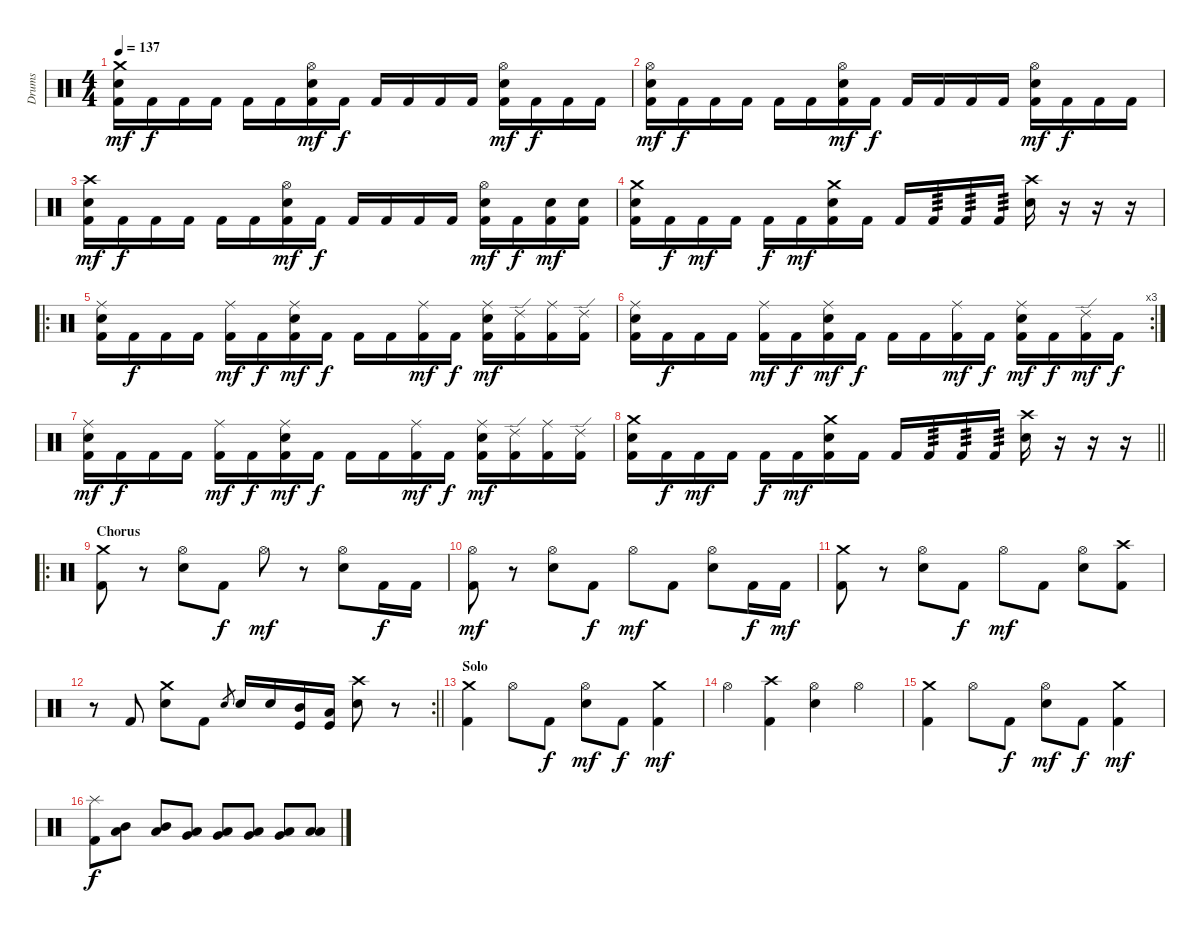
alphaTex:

\track ("Drums" "Drums") {instrument percussion}
\staff {score}
\articulation defaults
\ts (4 4)
\tempo 137
\clef neutral
\ks c
("Crash medium (hit)" "Electric Snare (hit)" "Kick (hit) 2").16{dy mf} "Kick (hit) 2".16{dy f} "Kick (hit) 2".16 "Kick (hit) 2".16 "Kick (hit) 2".16 "Kick (hit) 2".16 ("Hi-Hat (open)" "Electric Snare (hit)" "Kick (hit) 2").16{dy mf} "Kick (hit) 2".16{dy f} "Kick (hit) 2".16 "Kick (hit) 2".16 "Kick (hit) 2".16 "Kick (hit) 2".16 ("Hi-Hat (open)" "Electric Snare (hit)" "Kick (hit) 2").16{dy mf} "Kick (hit) 2".16{dy f} "Kick (hit) 2".16 "Kick (hit) 2".16 |
("Hi-Hat (open)" "Electric Snare (hit)" "Kick (hit) 2").16{dy mf} "Kick (hit) 2".16{dy f} "Kick (hit) 2".16 "Kick (hit) 2".16 "Kick (hit) 2".16 "Kick (hit) 2".16 ("Hi-Hat (open)" "Electric Snare (hit)" "Kick (hit) 2").16{dy mf} "Kick (hit) 2".16{dy f} "Kick (hit) 2".16 "Kick (hit) 2".16 "Kick (hit) 2".16 "Kick (hit) 2".16 ("Hi-Hat (open)" "Electric Snare (hit)" "Kick (hit) 2").16{dy mf} "Kick (hit) 2".16{dy f} "Kick (hit) 2".16 "Kick (hit) 2".16 |
("Crash high (hit)" "Electric Snare (hit)" "Kick (hit) 2").16{dy mf} "Kick (hit) 2".16{dy f} "Kick (hit) 2".16 "Kick (hit) 2".16 "Kick (hit) 2".16 "Kick (hit) 2".16 ("Hi-Hat (open)" "Electric Snare (hit)" "Kick (hit) 2").16{dy mf} "Kick (hit) 2".16{dy f} "Kick (hit) 2".16 "Kick (hit) 2".16 "Kick (hit) 2".16 "Kick (hit) 2".16 ("Hi-Hat (open)" "Electric Snare (hit)" "Kick (hit) 2").16{dy mf} "Kick (hit) 2".16{dy f} ("Electric Snare (hit)" "Kick (hit) 2").16{dy mf} ("Electric Snare (hit)" "Kick (hit) 2").16 |
("Crash medium (hit)" "Electric Snare (hit)" "Kick (hit) 2").16 "Kick (hit) 2".16{dy f} "Kick (hit) 2".16{dy mf} "Kick (hit) 2".16 "Kick (hit) 2".16{dy f} "Kick (hit) 2".16{dy mf} ("Crash medium (hit)" "Electric Snare (hit)" "Kick (hit) 2").16 "Kick (hit) 2".16 "Kick (hit) 2".16 "Kick (hit) 2".16{tp 3} "Kick (hit) 2".16{tp 3} "Kick (hit) 2".16{tp 3} ("Crash high (hit)" "Electric Snare (hit)").16 r.16 r.16 r.16 |
\ro
("Ride (middle)" "Electric Snare (hit)" "Kick (hit) 2").16 "Kick (hit) 2".16{dy f} "Kick (hit) 2".16 "Kick (hit) 2".16 ("Ride (middle)" "Kick (hit) 2").16{dy mf} "Kick (hit) 2".16{dy f} ("Ride (middle)" "Electric Snare (hit)" "Kick (hit) 2").16{dy mf} "Kick (hit) 2".16{dy f} "Kick (hit) 2".16 "Kick (hit) 2".16 ("Ride (middle)" "Kick (hit) 2").16{dy mf} "Kick (hit) 2".16{dy f} ("Ride (middle)" "Electric Snare (hit)" "Kick (hit) 2").16{dy mf} ("Ride (edge) 2" "Kick (hit) 2").16 ("Ride (middle)" "Kick (hit) 2").16 ("Ride (edge) 2" "Kick (hit) 2").16 |
\rc 3
("Ride (middle)" "Electric Snare (hit)" "Kick (hit) 2").16 "Kick (hit) 2".16{dy f} "Kick (hit) 2".16 "Kick (hit) 2".16 ("Ride (middle)" "Kick (hit) 2").16{dy mf} "Kick (hit) 2".16{dy f} ("Ride (middle)" "Electric Snare (hit)" "Kick (hit) 2").16{dy mf} "Kick (hit) 2".16{dy f} "Kick (hit) 2".16 "Kick (hit) 2".16 ("Ride (middle)" "Kick (hit) 2").16{dy mf} "Kick (hit) 2".16{dy f} ("Ride (middle)" "Electric Snare (hit)" "Kick (hit) 2").16{dy mf} "Kick (hit) 2".16{dy f} ("Ride (edge) 2" "Kick (hit) 2").16{dy mf} "Kick (hit) 2".16{dy f} |
("Ride (middle)" "Electric Snare (hit)" "Kick (hit) 2").16{dy mf} "Kick (hit) 2".16{dy f} "Kick (hit) 2".16 "Kick (hit) 2".16 ("Ride (middle)" "Kick (hit) 2").16{dy mf} "Kick (hit) 2".16{dy f} ("Ride (middle)" "Electric Snare (hit)" "Kick (hit) 2").16{dy mf} "Kick (hit) 2".16{dy f} "Kick (hit) 2".16 "Kick (hit) 2".16 ("Ride (middle)" "Kick (hit) 2").16{dy mf} "Kick (hit) 2".16{dy f} ("Ride (middle)" "Electric Snare (hit)" "Kick (hit) 2").16{dy mf} ("Ride (edge) 2" "Kick (hit) 2").16 ("Ride (middle)" "Kick (hit) 2").16 ("Ride (edge) 2" "Kick (hit) 2").16 |
\barLineRight lightlight
("Crash medium (hit)" "Electric Snare (hit)" "Kick (hit) 2").16 "Kick (hit) 2".16{dy f} "Kick (hit) 2".16{dy mf} "Kick (hit) 2".16 "Kick (hit) 2".16{dy f} "Kick (hit) 2".16{dy mf} ("Crash medium (hit)" "Electric Snare (hit)" "Kick (hit) 2").16 "Kick (hit) 2".16 "Kick (hit) 2".16 "Kick (hit) 2".16{tp 3} "Kick (hit) 2".16{tp 3} "Kick (hit) 2".16{tp 3} ("Crash high (hit)" "Electric Snare (hit)").16 r.16 r.16 r.16 |
\ro
\section ("" "Chorus")
("Crash medium (hit)" "Kick (hit) 2").8 r.8 ("Hi-Hat (open)" "Electric Snare (hit)").8 "Kick (hit) 2".8{dy f} "Hi-Hat (open)".8{dy mf} r.8 ("Hi-Hat (open)" "Electric Snare (hit)").8 "Kick (hit) 2".16{dy f} "Kick (hit) 2".16 |
("Hi-Hat (open)" "Kick (hit) 2").8{dy mf} r.8 ("Hi-Hat (open)" "Electric Snare (hit)").8 "Kick (hit) 2".8{dy f} "Hi-Hat (open)".8{dy mf} "Kick (hit) 2".8 ("Hi-Hat (open)" "Electric Snare (hit)").8 "Kick (hit) 2".16{dy f} "Kick (hit) 2".16{dy mf} |
("Crash medium (hit)" "Kick (hit) 2").8 r.8 ("Hi-Hat (open)" "Electric Snare (hit)").8 "Kick (hit) 2".8{dy f} "Hi-Hat (open)".8{dy mf} "Kick (hit) 2".8 ("Hi-Hat (open)" "Electric Snare (hit)").8 ("Crash high (hit)" "Kick (hit) 2").8 |
\rc 2
\barLineRight lightlight
r.8 "Kick (hit) 2".8 ("Crash medium (hit)" "Electric Snare (hit)").8 "Kick (hit) 2".8 "Electric Snare (hit)".8{gr} "Electric Snare (hit)".16 "Electric Snare (hit)".16 ("Mid Tom (hit)" "Kick (hit)").16 ("Low Tom (hit)" "Kick (hit)").16 ("Crash high (hit)" "Electric Snare (hit)").8 r.8 |
\section ("" "Solo")
("Crash medium (hit)" "Kick (hit) 2").4 "Hi-Hat (open)".8 "Kick (hit) 2".8{dy f} ("Hi-Hat (open)" "Electric Snare (hit)").8{dy mf} "Kick (hit) 2".8{dy f} ("Crash medium (hit)" "Kick (hit) 2").4{dy mf} |
"Hi-Hat (open)".4 ("Crash high (hit)" "Kick (hit) 2").4 ("Hi-Hat (open)" "Electric Snare (hit)").4 "Hi-Hat (open)".4 |
("Crash medium (hit)" "Kick (hit) 2").4 "Hi-Hat (open)".8 "Kick (hit) 2".8{dy f} ("Hi-Hat (open)" "Electric Snare (hit)").8{dy mf} "Kick (hit) 2".8{dy f} ("Crash medium (hit)" "Kick (hit) 2").4{dy mf} |
("Splash (hit)" "Kick (hit) 2").8{dy f} ("Mid Tom (hit)" "Low Tom (hit)").8 ("Mid Tom (hit)" "Low Tom (hit)").8 ("Low Tom (hit)" "Very Low Tom (hit)").8 ("Low Tom (hit)" "Very Low Tom (hit)").8 ("Very Low Tom (hit)" "Low Floor Tom (hit)").8 ("Very Low Tom (hit)" "Low Floor Tom (hit)").8 ("Low Floor Tom (hit)" "Low Floor Tom (hit)").8
